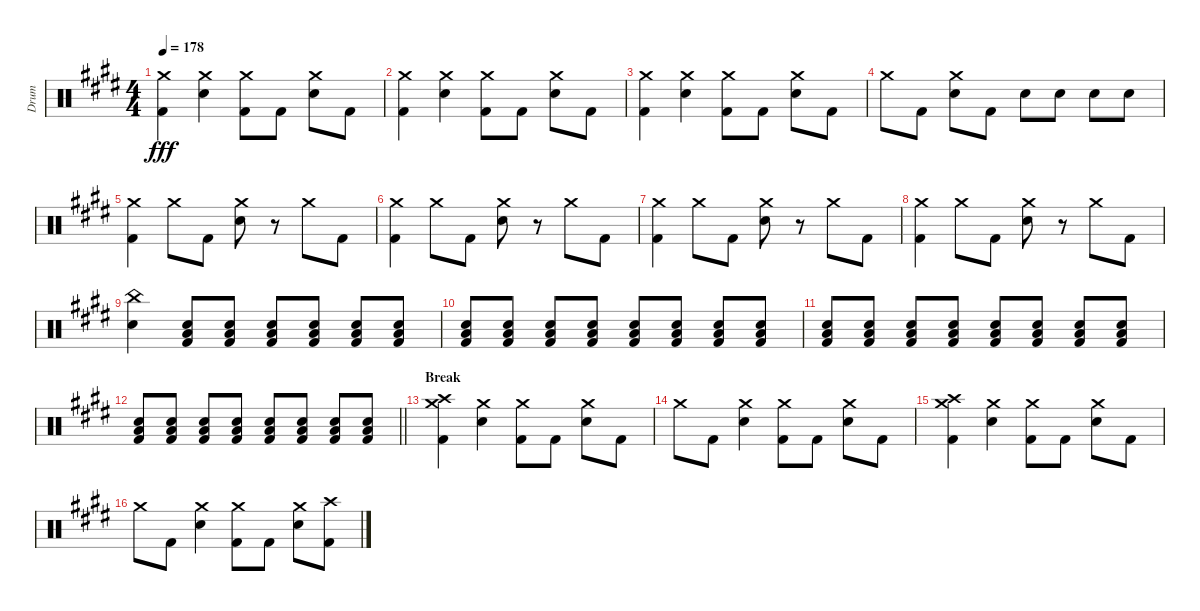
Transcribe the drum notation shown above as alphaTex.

\track ("Drum" "Drum") {instrument percussion}
\staff {score}
\articulation defaults
\ts (4 4)
\tempo 178
\clef neutral
\ks e
("Crash medium (hit)" "Kick (hit) 2").4{dy fff} ("Crash medium (hit)" "Electric Snare (hit)").4 ("Crash medium (hit)" "Kick (hit) 2").8 "Kick (hit) 2".8 ("Crash medium (hit)" "Electric Snare (hit)").8 "Kick (hit) 2".8 |
("Crash medium (hit)" "Kick (hit) 2").4 ("Crash medium (hit)" "Electric Snare (hit)").4 ("Crash medium (hit)" "Kick (hit) 2").8 "Kick (hit) 2".8 ("Crash medium (hit)" "Electric Snare (hit)").8 "Kick (hit) 2".8 |
("Crash medium (hit)" "Kick (hit) 2").4 ("Crash medium (hit)" "Electric Snare (hit)").4 ("Crash medium (hit)" "Kick (hit) 2").8 "Kick (hit) 2".8 ("Crash medium (hit)" "Electric Snare (hit)").8 "Kick (hit) 2".8 |
"Crash medium (hit)".8 "Kick (hit) 2".8 ("Crash medium (hit)" "Electric Snare (hit)").8 "Kick (hit) 2".8 "Electric Snare (hit)".8 "Electric Snare (hit)".8 "Electric Snare (hit)".8 "Electric Snare (hit)".8 |
("Crash medium (hit)" "Kick (hit) 2").4 "Crash medium (hit)".8 "Kick (hit) 2".8 ("Crash medium (hit)" "Electric Snare (hit)").8 r.8 "Crash medium (hit)".8 "Kick (hit) 2".8 |
("Crash medium (hit)" "Kick (hit) 2").4 "Crash medium (hit)".8 "Kick (hit) 2".8 ("Crash medium (hit)" "Electric Snare (hit)").8 r.8 "Crash medium (hit)".8 "Kick (hit) 2".8 |
("Crash medium (hit)" "Kick (hit) 2").4 "Crash medium (hit)".8 "Kick (hit) 2".8 ("Crash medium (hit)" "Electric Snare (hit)").8 r.8 "Crash medium (hit)".8 "Kick (hit) 2".8 |
("Crash medium (hit)" "Kick (hit) 2").4 "Crash medium (hit)".8 "Kick (hit) 2".8 ("Crash medium (hit)" "Electric Snare (hit)").8 r.8 "Crash medium (hit)".8 "Kick (hit) 2".8 |
("China (hit)" "Electric Snare (hit)").4 ("Electric Snare (hit)" "Low Tom (hit)" "Kick (hit) 2").8 ("Electric Snare (hit)" "Low Tom (hit)" "Kick (hit) 2").8 ("Electric Snare (hit)" "Low Tom (hit)" "Kick (hit) 2").8 ("Electric Snare (hit)" "Low Tom (hit)" "Kick (hit) 2").8 ("Electric Snare (hit)" "Low Tom (hit)" "Kick (hit) 2").8 ("Electric Snare (hit)" "Low Tom (hit)" "Kick (hit) 2").8 |
("Electric Snare (hit)" "Low Tom (hit)" "Kick (hit) 2").8 ("Electric Snare (hit)" "Low Tom (hit)" "Kick (hit) 2").8 ("Electric Snare (hit)" "Low Tom (hit)" "Kick (hit) 2").8 ("Electric Snare (hit)" "Low Tom (hit)" "Kick (hit) 2").8 ("Electric Snare (hit)" "Low Tom (hit)" "Kick (hit) 2").8 ("Electric Snare (hit)" "Low Tom (hit)" "Kick (hit) 2").8 ("Electric Snare (hit)" "Low Tom (hit)" "Kick (hit) 2").8 ("Electric Snare (hit)" "Low Tom (hit)" "Kick (hit) 2").8 |
("Electric Snare (hit)" "Low Tom (hit)" "Kick (hit) 2").8 ("Electric Snare (hit)" "Low Tom (hit)" "Kick (hit) 2").8 ("Electric Snare (hit)" "Low Tom (hit)" "Kick (hit) 2").8 ("Electric Snare (hit)" "Low Tom (hit)" "Kick (hit) 2").8 ("Electric Snare (hit)" "Low Tom (hit)" "Kick (hit) 2").8 ("Electric Snare (hit)" "Low Tom (hit)" "Kick (hit) 2").8 ("Electric Snare (hit)" "Low Tom (hit)" "Kick (hit) 2").8 ("Electric Snare (hit)" "Low Tom (hit)" "Kick (hit) 2").8 |
\barLineRight lightlight
("Electric Snare (hit)" "Low Tom (hit)" "Kick (hit) 2").8 ("Electric Snare (hit)" "Low Tom (hit)" "Kick (hit) 2").8 ("Electric Snare (hit)" "Low Tom (hit)" "Kick (hit) 2").8 ("Electric Snare (hit)" "Low Tom (hit)" "Kick (hit) 2").8 ("Electric Snare (hit)" "Low Tom (hit)" "Kick (hit) 2").8 ("Electric Snare (hit)" "Low Tom (hit)" "Kick (hit) 2").8 ("Electric Snare (hit)" "Low Tom (hit)" "Kick (hit) 2").8 ("Electric Snare (hit)" "Low Tom (hit)" "Kick (hit) 2").8 |
\section ("" "Break")
("Crash medium (hit)" "Crash high (hit)" "Kick (hit) 2").4 ("Crash medium (hit)" "Electric Snare (hit)").4 ("Crash medium (hit)" "Kick (hit) 2").8 "Kick (hit) 2".8 ("Crash medium (hit)" "Electric Snare (hit)").8 "Kick (hit) 2".8 |
"Crash medium (hit)".8 "Kick (hit) 2".8 ("Crash medium (hit)" "Electric Snare (hit)").4 ("Crash medium (hit)" "Kick (hit) 2").8 "Kick (hit) 2".8 ("Crash medium (hit)" "Electric Snare (hit)").8 "Kick (hit) 2".8 |
("Crash medium (hit)" "Crash high (hit)" "Kick (hit) 2").4 ("Crash medium (hit)" "Electric Snare (hit)").4 ("Crash medium (hit)" "Kick (hit) 2").8 "Kick (hit) 2".8 ("Crash medium (hit)" "Electric Snare (hit)").8 "Kick (hit) 2".8 |
"Crash medium (hit)".8 "Kick (hit) 2".8 ("Crash medium (hit)" "Electric Snare (hit)").4 ("Crash medium (hit)" "Kick (hit) 2").8 "Kick (hit) 2".8 ("Crash medium (hit)" "Electric Snare (hit)").8 ("Crash high (hit)" "Kick (hit) 2").8
